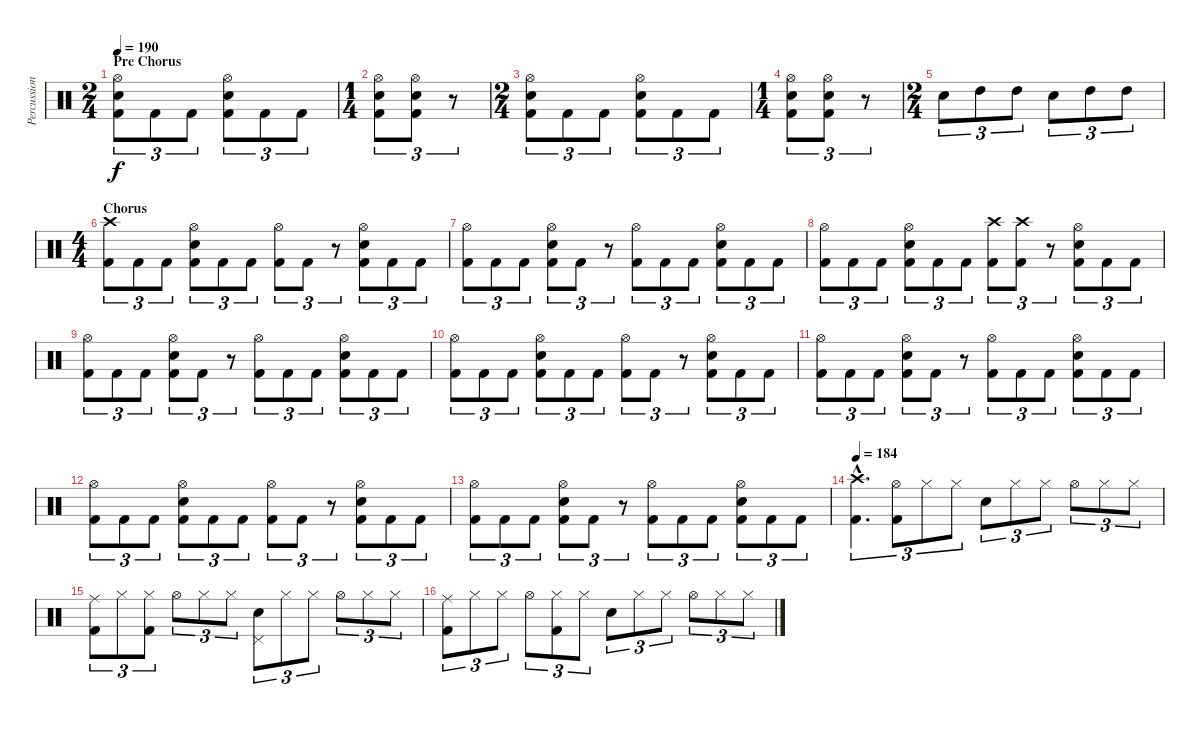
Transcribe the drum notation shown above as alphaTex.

\track ("Percussion" "Percussion") {instrument percussion}
\staff {score}
\articulation defaults
\ts (2 4)
\section ("" "Pre Chorus")
\tempo 190
\clef neutral
\ks c
("Hi-Hat (open)" "Electric Snare (hit)" "Kick (hit) 2").8{tu (3 2) dy f} "Kick (hit) 2".8{tu (3 2)} "Kick (hit) 2".8{tu (3 2)} ("Hi-Hat (open)" "Electric Snare (hit)" "Kick (hit) 2").8{tu (3 2)} "Kick (hit) 2".8{tu (3 2)} "Kick (hit) 2".8{tu (3 2)} |
\ts (1 4)
("Hi-Hat (open)" "Electric Snare (hit)" "Kick (hit) 2").8{tu (3 2)} ("Hi-Hat (open)" "Electric Snare (hit)" "Kick (hit) 2").8{tu (3 2)} r.8{tu (3 2)} |
\ts (2 4)
("Hi-Hat (open)" "Electric Snare (hit)" "Kick (hit) 2").8{tu (3 2)} "Kick (hit) 2".8{tu (3 2)} "Kick (hit) 2".8{tu (3 2)} ("Hi-Hat (open)" "Electric Snare (hit)" "Kick (hit) 2").8{tu (3 2)} "Kick (hit) 2".8{tu (3 2)} "Kick (hit) 2".8{tu (3 2)} |
\ts (1 4)
("Hi-Hat (open)" "Electric Snare (hit)" "Kick (hit) 2").8{tu (3 2)} ("Hi-Hat (open)" "Electric Snare (hit)" "Kick (hit) 2").8{tu (3 2)} r.8{tu (3 2)} |
\ts (2 4)
"Electric Snare (hit)".8{tu (3 2)} "High Tom (hit)".8{tu (3 2)} "High Tom (hit)".8{tu (3 2)} "Electric Snare (hit)".8{tu (3 2)} "High Tom (hit)".8{tu (3 2)} "High Tom (hit)".8{tu (3 2)} |
\ts (4 4)
\section ("" "Chorus")
("Crash high (hit)" "Kick (hit) 2").8{tu (3 2)} "Kick (hit) 2".8{tu (3 2)} "Kick (hit) 2".8{tu (3 2)} ("Hi-Hat (open)" "Electric Snare (hit)" "Kick (hit) 2").8{tu (3 2)} "Kick (hit) 2".8{tu (3 2)} "Kick (hit) 2".8{tu (3 2)} ("Hi-Hat (open)" "Kick (hit) 2").8{tu (3 2)} "Kick (hit) 2".8{tu (3 2)} r.8{tu (3 2)} ("Hi-Hat (open)" "Electric Snare (hit)" "Kick (hit) 2").8{tu (3 2)} "Kick (hit) 2".8{tu (3 2)} "Kick (hit) 2".8{tu (3 2)} |
("Hi-Hat (open)" "Kick (hit) 2").8{tu (3 2)} "Kick (hit) 2".8{tu (3 2)} "Kick (hit) 2".8{tu (3 2)} ("Hi-Hat (open)" "Electric Snare (hit)" "Kick (hit) 2").8{tu (3 2)} "Kick (hit) 2".8{tu (3 2)} r.8{tu (3 2)} ("Hi-Hat (open)" "Kick (hit) 2").8{tu (3 2)} "Kick (hit) 2".8{tu (3 2)} "Kick (hit) 2".8{tu (3 2)} ("Hi-Hat (open)" "Electric Snare (hit)" "Kick (hit) 2").8{tu (3 2)} "Kick (hit) 2".8{tu (3 2)} "Kick (hit) 2".8{tu (3 2)} |
("Hi-Hat (open)" "Kick (hit) 2").8{tu (3 2)} "Kick (hit) 2".8{tu (3 2)} "Kick (hit) 2".8{tu (3 2)} ("Hi-Hat (open)" "Electric Snare (hit)" "Kick (hit) 2").8{tu (3 2)} "Kick (hit) 2".8{tu (3 2)} "Kick (hit) 2".8{tu (3 2)} ("Crash high (hit)" "Kick (hit) 2").8{tu (3 2)} ("Crash high (hit)" "Kick (hit) 2").8{tu (3 2)} r.8{tu (3 2)} ("Hi-Hat (open)" "Electric Snare (hit)" "Kick (hit) 2").8{tu (3 2)} "Kick (hit) 2".8{tu (3 2)} "Kick (hit) 2".8{tu (3 2)} |
("Hi-Hat (open)" "Kick (hit) 2").8{tu (3 2)} "Kick (hit) 2".8{tu (3 2)} "Kick (hit) 2".8{tu (3 2)} ("Hi-Hat (open)" "Electric Snare (hit)" "Kick (hit) 2").8{tu (3 2)} "Kick (hit) 2".8{tu (3 2)} r.8{tu (3 2)} ("Hi-Hat (open)" "Kick (hit) 2").8{tu (3 2)} "Kick (hit) 2".8{tu (3 2)} "Kick (hit) 2".8{tu (3 2)} ("Hi-Hat (open)" "Electric Snare (hit)" "Kick (hit) 2").8{tu (3 2)} "Kick (hit) 2".8{tu (3 2)} "Kick (hit) 2".8{tu (3 2)} |
("Hi-Hat (open)" "Kick (hit) 2").8{tu (3 2)} "Kick (hit) 2".8{tu (3 2)} "Kick (hit) 2".8{tu (3 2)} ("Hi-Hat (open)" "Electric Snare (hit)" "Kick (hit) 2").8{tu (3 2)} "Kick (hit) 2".8{tu (3 2)} "Kick (hit) 2".8{tu (3 2)} ("Hi-Hat (open)" "Kick (hit) 2").8{tu (3 2)} "Kick (hit) 2".8{tu (3 2)} r.8{tu (3 2)} ("Hi-Hat (open)" "Electric Snare (hit)" "Kick (hit) 2").8{tu (3 2)} "Kick (hit) 2".8{tu (3 2)} "Kick (hit) 2".8{tu (3 2)} |
("Hi-Hat (open)" "Kick (hit) 2").8{tu (3 2)} "Kick (hit) 2".8{tu (3 2)} "Kick (hit) 2".8{tu (3 2)} ("Hi-Hat (open)" "Electric Snare (hit)" "Kick (hit) 2").8{tu (3 2)} "Kick (hit) 2".8{tu (3 2)} r.8{tu (3 2)} ("Hi-Hat (open)" "Kick (hit) 2").8{tu (3 2)} "Kick (hit) 2".8{tu (3 2)} "Kick (hit) 2".8{tu (3 2)} ("Hi-Hat (open)" "Electric Snare (hit)" "Kick (hit) 2").8{tu (3 2)} "Kick (hit) 2".8{tu (3 2)} "Kick (hit) 2".8{tu (3 2)} |
("Hi-Hat (open)" "Kick (hit) 2").8{tu (3 2)} "Kick (hit) 2".8{tu (3 2)} "Kick (hit) 2".8{tu (3 2)} ("Hi-Hat (open)" "Electric Snare (hit)" "Kick (hit) 2").8{tu (3 2)} "Kick (hit) 2".8{tu (3 2)} "Kick (hit) 2".8{tu (3 2)} ("Hi-Hat (open)" "Kick (hit) 2").8{tu (3 2)} "Kick (hit) 2".8{tu (3 2)} r.8{tu (3 2)} ("Hi-Hat (open)" "Electric Snare (hit)" "Kick (hit) 2").8{tu (3 2)} "Kick (hit) 2".8{tu (3 2)} "Kick (hit) 2".8{tu (3 2)} |
("Hi-Hat (open)" "Kick (hit) 2").8{tu (3 2)} "Kick (hit) 2".8{tu (3 2)} "Kick (hit) 2".8{tu (3 2)} ("Hi-Hat (open)" "Electric Snare (hit)" "Kick (hit) 2").8{tu (3 2)} "Kick (hit) 2".8{tu (3 2)} r.8{tu (3 2)} ("Hi-Hat (open)" "Kick (hit) 2").8{tu (3 2)} "Kick (hit) 2".8{tu (3 2)} "Kick (hit) 2".8{tu (3 2)} ("Hi-Hat (open)" "Electric Snare (hit)" "Kick (hit) 2").8{tu (3 2)} "Kick (hit) 2".8{tu (3 2)} "Kick (hit) 2".8{tu (3 2)} |
\tempo 184
("Crash high (hit)"{hac} "Kick (hit) 2"{hac}).4{d tu (3 2)} ("Hi-Hat (open)" "Kick (hit) 2").8{tu (3 2)} "Hi-Hat (closed)".8{tu (3 2)} "Hi-Hat (closed)".8{tu (3 2)} "Electric Snare (hit)".8{tu (3 2)} "Hi-Hat (closed)".8{tu (3 2)} "Hi-Hat (closed)".8{tu (3 2)} "Hi-Hat (open)".8{tu (3 2)} "Hi-Hat (closed)".8{tu (3 2)} "Hi-Hat (closed)".8{tu (3 2)} |
("Ride (middle)" "Kick (hit) 2").8{tu (3 2)} "Hi-Hat (closed)".8{tu (3 2)} ("Hi-Hat (closed)" "Kick (hit) 2").8{tu (3 2)} "Hi-Hat (open)".8{tu (3 2)} "Hi-Hat (closed)".8{tu (3 2)} "Hi-Hat (closed)".8{tu (3 2)} ("Electric Snare (hit)" "Pedal Hi-Hat (hit)").8{tu (3 2)} "Hi-Hat (closed)".8{tu (3 2)} "Hi-Hat (closed)".8{tu (3 2)} "Hi-Hat (open)".8{tu (3 2)} "Hi-Hat (closed)".8{tu (3 2)} "Hi-Hat (closed)".8{tu (3 2)} |
("Ride (middle)" "Kick (hit) 2").8{tu (3 2)} "Hi-Hat (closed)".8{tu (3 2)} "Hi-Hat (closed)".8{tu (3 2)} "Hi-Hat (open)".8{tu (3 2)} ("Hi-Hat (closed)" "Kick (hit) 2").8{tu (3 2)} "Hi-Hat (closed)".8{tu (3 2)} "Electric Snare (hit)".8{tu (3 2)} "Hi-Hat (closed)".8{tu (3 2)} "Hi-Hat (closed)".8{tu (3 2)} "Hi-Hat (open)".8{tu (3 2)} "Hi-Hat (closed)".8{tu (3 2)} "Hi-Hat (closed)".8{tu (3 2)}
